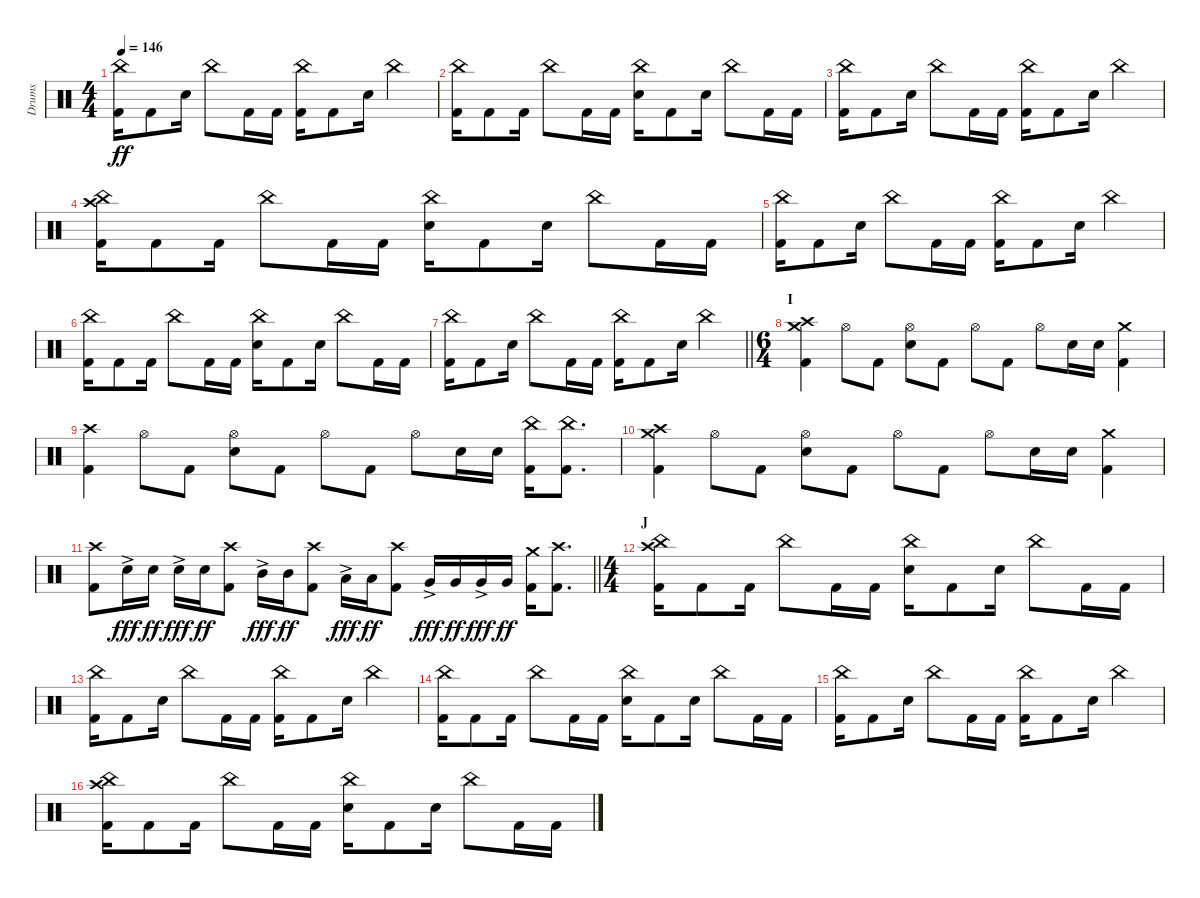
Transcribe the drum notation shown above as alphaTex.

\track ("Drums" "Drums") {instrument percussion}
\staff {score}
\articulation defaults
\ts (4 4)
\tempo 146
\clef neutral
\ks c
("China (hit)" "Kick (hit) 2").16{dy ff} "Kick (hit) 2".8 "Electric Snare (hit)".16 "China (hit)".8 "Kick (hit) 2".16 "Kick (hit) 2".16 ("China (hit)" "Kick (hit) 2").16 "Kick (hit) 2".8 "Electric Snare (hit)".16 "China (hit)".4 |
("China (hit)" "Kick (hit) 2").16 "Kick (hit) 2".8 "Kick (hit) 2".16 "China (hit)".8 "Kick (hit) 2".16 "Kick (hit) 2".16 ("China (hit)" "Electric Snare (hit)").16 "Kick (hit) 2".8 "Electric Snare (hit)".16 "China (hit)".8 "Kick (hit) 2".16 "Kick (hit) 2".16 |
("China (hit)" "Kick (hit) 2").16 "Kick (hit) 2".8 "Electric Snare (hit)".16 "China (hit)".8 "Kick (hit) 2".16 "Kick (hit) 2".16 ("China (hit)" "Kick (hit) 2").16 "Kick (hit) 2".8 "Electric Snare (hit)".16 "China (hit)".4 |
("Crash high (hit)" "China (hit)" "Kick (hit) 2").16 "Kick (hit) 2".8 "Kick (hit) 2".16 "China (hit)".8 "Kick (hit) 2".16 "Kick (hit) 2".16 ("China (hit)" "Electric Snare (hit)").16 "Kick (hit) 2".8 "Electric Snare (hit)".16 "China (hit)".8 "Kick (hit) 2".16 "Kick (hit) 2".16 |
("China (hit)" "Kick (hit) 2").16 "Kick (hit) 2".8 "Electric Snare (hit)".16 "China (hit)".8 "Kick (hit) 2".16 "Kick (hit) 2".16 ("China (hit)" "Kick (hit) 2").16 "Kick (hit) 2".8 "Electric Snare (hit)".16 "China (hit)".4 |
("China (hit)" "Kick (hit) 2").16 "Kick (hit) 2".8 "Kick (hit) 2".16 "China (hit)".8 "Kick (hit) 2".16 "Kick (hit) 2".16 ("China (hit)" "Electric Snare (hit)").16 "Kick (hit) 2".8 "Electric Snare (hit)".16 "China (hit)".8 "Kick (hit) 2".16 "Kick (hit) 2".16 |
\barLineRight lightlight
("China (hit)" "Kick (hit) 2").16 "Kick (hit) 2".8 "Electric Snare (hit)".16 "China (hit)".8 "Kick (hit) 2".16 "Kick (hit) 2".16 ("China (hit)" "Kick (hit) 2").16 "Kick (hit) 2".8 "Electric Snare (hit)".16 "China (hit)".4 |
\ts (6 4)
\section ("" "I")
("Crash medium (hit)" "Crash high (hit)" "Kick (hit) 2").4 "Hi-Hat (open)".8 "Kick (hit) 2".8 ("Hi-Hat (open)" "Electric Snare (hit)").8 "Kick (hit) 2".8 "Hi-Hat (open)".8 "Kick (hit) 2".8 "Hi-Hat (open)".8 "Electric Snare (hit)".16 "Electric Snare (hit)".16 ("Crash medium (hit)" "Kick (hit) 2").4 |
("Crash high (hit)" "Kick (hit) 2").4 "Hi-Hat (open)".8 "Kick (hit) 2".8 ("Hi-Hat (open)" "Electric Snare (hit)").8 "Kick (hit) 2".8 "Hi-Hat (open)".8 "Kick (hit) 2".8 "Hi-Hat (open)".8 "Electric Snare (hit)".16 "Electric Snare (hit)".16 ("China (hit)" "Kick (hit) 2").16 ("China (hit)" "Kick (hit) 2").8{d} |
("Crash medium (hit)" "Crash high (hit)" "Kick (hit) 2").4 "Hi-Hat (open)".8 "Kick (hit) 2".8 ("Hi-Hat (open)" "Electric Snare (hit)").8 "Kick (hit) 2".8 "Hi-Hat (open)".8 "Kick (hit) 2".8 "Hi-Hat (open)".8 "Electric Snare (hit)".16 "Electric Snare (hit)".16 ("Crash medium (hit)" "Kick (hit) 2").4 |
\barLineRight lightlight
("Crash high (hit)" "Kick (hit) 2").8 "Electric Snare (hit)"{ac}.16{dy fff} "Electric Snare (hit)".16{dy ff} "Electric Snare (hit)"{ac}.16{dy fff} "Electric Snare (hit)".16{dy ff} ("Crash high (hit)" "Kick (hit) 2").8 "Mid Tom (hit)"{ac}.16{dy fff} "Mid Tom (hit)".16{dy ff} ("Crash high (hit)" "Kick (hit) 2").8 "Low Tom (hit)"{ac}.16{dy fff} "Low Tom (hit)".16{dy ff} ("Crash high (hit)" "Kick (hit) 2").8 "Very Low Tom (hit)"{ac}.16{dy fff} "Very Low Tom (hit)".16{dy ff} "Very Low Tom (hit)"{ac}.16{dy fff} "Very Low Tom (hit)".16{dy ff} ("Crash medium (hit)" "Kick (hit) 2").16 ("Crash high (hit)" "Kick (hit) 2").8{d} |
\ts (4 4)
\section ("" "J")
("Crash high (hit)" "China (hit)" "Kick (hit) 2").16 "Kick (hit) 2".8 "Kick (hit) 2".16 "China (hit)".8 "Kick (hit) 2".16 "Kick (hit) 2".16 ("China (hit)" "Electric Snare (hit)").16 "Kick (hit) 2".8 "Electric Snare (hit)".16 "China (hit)".8 "Kick (hit) 2".16 "Kick (hit) 2".16 |
("China (hit)" "Kick (hit) 2").16 "Kick (hit) 2".8 "Electric Snare (hit)".16 "China (hit)".8 "Kick (hit) 2".16 "Kick (hit) 2".16 ("China (hit)" "Kick (hit) 2").16 "Kick (hit) 2".8 "Electric Snare (hit)".16 "China (hit)".4 |
("China (hit)" "Kick (hit) 2").16 "Kick (hit) 2".8 "Kick (hit) 2".16 "China (hit)".8 "Kick (hit) 2".16 "Kick (hit) 2".16 ("China (hit)" "Electric Snare (hit)").16 "Kick (hit) 2".8 "Electric Snare (hit)".16 "China (hit)".8 "Kick (hit) 2".16 "Kick (hit) 2".16 |
("China (hit)" "Kick (hit) 2").16 "Kick (hit) 2".8 "Electric Snare (hit)".16 "China (hit)".8 "Kick (hit) 2".16 "Kick (hit) 2".16 ("China (hit)" "Kick (hit) 2").16 "Kick (hit) 2".8 "Electric Snare (hit)".16 "China (hit)".4 |
("Crash high (hit)" "China (hit)" "Kick (hit) 2").16 "Kick (hit) 2".8 "Kick (hit) 2".16 "China (hit)".8 "Kick (hit) 2".16 "Kick (hit) 2".16 ("China (hit)" "Electric Snare (hit)").16 "Kick (hit) 2".8 "Electric Snare (hit)".16 "China (hit)".8 "Kick (hit) 2".16 "Kick (hit) 2".16
